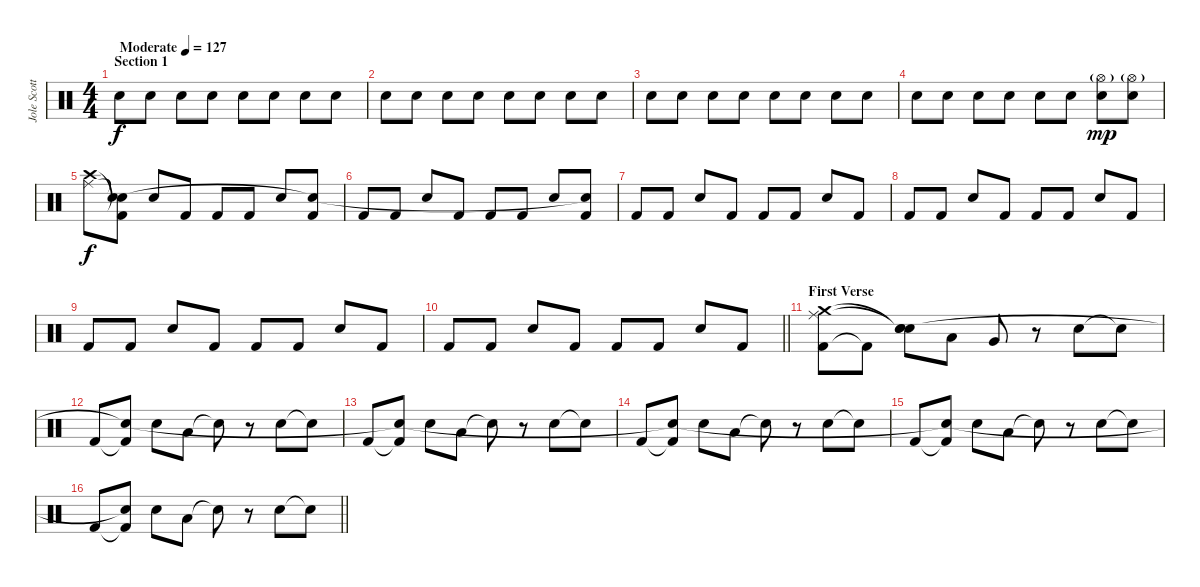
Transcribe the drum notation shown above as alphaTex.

\track ("Jole Scott Key" "Jole Scott") {instrument percussion}
\staff {score}
\articulation defaults
\ts (4 4)
\section ("" "Section 1")
\tempo (127 "Moderate")
\clef neutral
\ks c "Snare (hit) 2".8{dy f} "Snare (hit) 2".8 "Snare (hit) 2".8 "Snare (hit) 2".8 "Snare (hit) 2".8 "Snare (hit) 2".8 "Snare (hit) 2".8 "Snare (hit) 2".8
|
"Snare (hit) 2".8 "Snare (hit) 2".8 "Snare (hit) 2".8 "Snare (hit) 2".8 "Snare (hit) 2".8 "Snare (hit) 2".8 "Snare (hit) 2".8 "Snare (hit) 2".8 |
"Snare (hit) 2".8 "Snare (hit) 2".8 "Snare (hit) 2".8 "Snare (hit) 2".8 "Snare (hit) 2".8 "Snare (hit) 2".8 "Snare (hit) 2".8 "Snare (hit) 2".8 |
"Snare (hit) 2".8 "Snare (hit) 2".8 "Snare (hit) 2".8 "Snare (hit) 2".8 "Snare (hit) 2".8 "Snare (hit) 2".8 ("Snare (hit) 2" "Hi-Hat (open)"{g}).8{dy mp} ("Snare (hit) 2" "Hi-Hat (open)"{g}).8 |
("Crash high (hit)" "Ride (middle)").8{dy f} ("Kick (hit) 2"{t} "Snare (hit)"{t} "Snare (hit)").8 "Electric Snare (hit)".8 "Kick (hit) 2".8 "Kick (hit) 2".8 "Kick (hit) 2".8 "Electric Snare (hit)".8 ("Kick (hit) 2" "Snare (hit)"{t}).8 |
"Kick (hit) 2".8 "Kick (hit) 2".8 "Electric Snare (hit)".8 "Kick (hit) 2".8 "Kick (hit) 2".8 "Kick (hit) 2".8 "Electric Snare (hit)".8 ("Kick (hit) 2" "Snare (hit)"{t}).8 |
"Kick (hit) 2".8 "Kick (hit) 2".8 "Electric Snare (hit)".8 "Kick (hit) 2".8 "Kick (hit) 2".8 "Kick (hit) 2".8 "Electric Snare (hit)".8 "Kick (hit) 2".8 |
"Kick (hit) 2".8 "Kick (hit) 2".8 "Electric Snare (hit)".8 "Kick (hit) 2".8 "Kick (hit) 2".8 "Kick (hit) 2".8 "Electric Snare (hit)".8 "Kick (hit) 2".8 |
"Kick (hit) 2".8 "Kick (hit) 2".8 "Electric Snare (hit)".8 "Kick (hit) 2".8 "Kick (hit) 2".8 "Kick (hit) 2".8 "Electric Snare (hit)".8 "Kick (hit) 2".8 |
\barLineRight lightlight "Kick (hit) 2".8 "Kick (hit) 2".8 "Electric Snare (hit)".8 "Kick (hit) 2".8 "Kick (hit) 2".8 "Kick (hit) 2".8 "Electric Snare (hit)".8 "Kick (hit) 2".8
|
\section ("" "First Verse ")
("Kick (hit) 2" "Crash medium (hit)" "Ride (middle)").8 "Kick (hit) 2"{t}.8 ("Electric Snare (hit)" "Snare (hit)"{t} "Snare (hit)"{t}).8 "Low Floor Tom (hit)".8 "Very Low Tom (hit)".8 r.8 "Electric Snare (hit)".8 "Electric Snare (hit)"{t}.8 |
"Kick (hit) 2".8 ("Kick (hit) 2"{t} "Electric Snare (hit)"{t}).8 "Electric Snare (hit)".8 "Low Floor Tom (hit)".8 "Snare (hit)"{t}.8 r.8 "Electric Snare (hit)".8 "Electric Snare (hit)"{t}.8 |
"Kick (hit) 2".8 ("Kick (hit) 2"{t} "Electric Snare (hit)"{t}).8 "Electric Snare (hit)".8 "Low Floor Tom (hit)".8 "Snare (hit)"{t}.8 r.8 "Electric Snare (hit)".8 "Electric Snare (hit)"{t}.8 |
"Kick (hit) 2".8 ("Kick (hit) 2"{t} "Electric Snare (hit)"{t}).8 "Electric Snare (hit)".8 "Low Floor Tom (hit)".8 "Snare (hit)"{t}.8 r.8 "Electric Snare (hit)".8 "Electric Snare (hit)"{t}.8 |
"Kick (hit) 2".8 ("Kick (hit) 2"{t} "Electric Snare (hit)"{t}).8 "Electric Snare (hit)".8 "Low Floor Tom (hit)".8 "Snare (hit)"{t}.8 r.8 "Electric Snare (hit)".8 "Electric Snare (hit)"{t}.8 |
\barLineRight lightlight "Kick (hit) 2".8
("Kick (hit) 2"{t} "Electric Snare (hit)"{t}).8 "Electric Snare (hit)".8 "Low Floor Tom (hit)".8 "Snare (hit)"{t}.8 r.8 "Electric Snare (hit)".8 "Electric Snare (hit)"{t}.8
